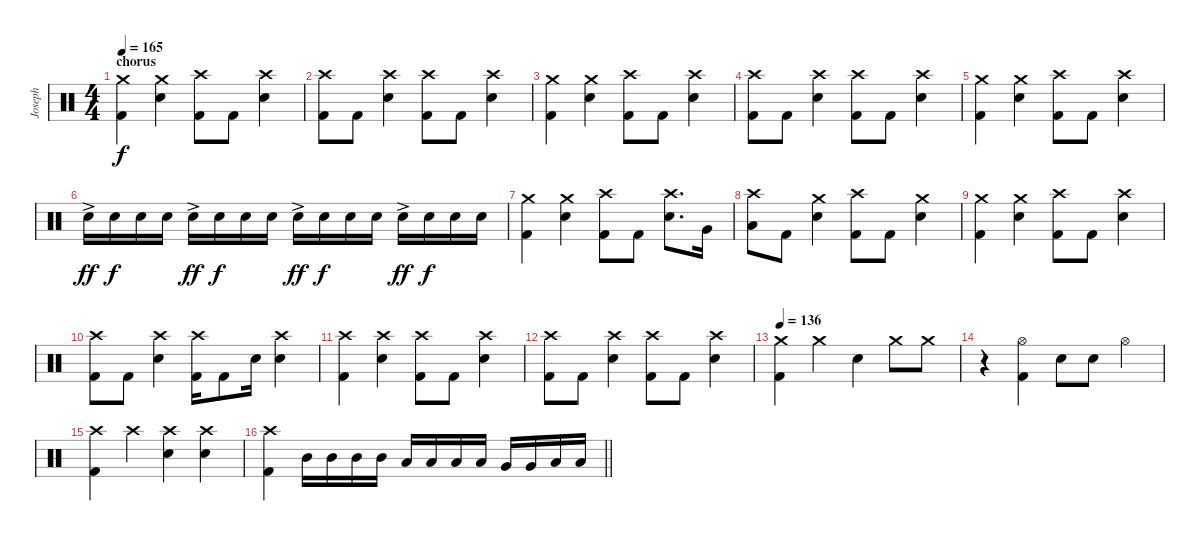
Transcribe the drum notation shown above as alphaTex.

\track ("Joseph" "Joseph") {instrument percussion}
\staff {score}
\articulation defaults
\ts (4 4)
\section ("" "chorus")
\tempo 165
\clef neutral
\ks c
("Crash medium (hit)" "Kick (hit) 2").4{dy f volume 13} ("Crash medium (hit)" "Electric Snare (hit)").4 ("Crash high (hit)" "Kick (hit) 2").8 "Kick (hit) 2".8 ("Crash high (hit)" "Electric Snare (hit)").4 |
("Crash high (hit)" "Kick (hit) 2").8 "Kick (hit) 2".8 ("Crash high (hit)" "Electric Snare (hit)").4 ("Crash high (hit)" "Kick (hit) 2").8 "Kick (hit) 2".8 ("Crash high (hit)" "Electric Snare (hit)").4 |
("Crash medium (hit)" "Kick (hit) 2").4 ("Crash medium (hit)" "Electric Snare (hit)").4 ("Crash high (hit)" "Kick (hit) 2").8 "Kick (hit) 2".8 ("Crash high (hit)" "Electric Snare (hit)").4 |
("Crash high (hit)" "Kick (hit) 2").8 "Kick (hit) 2".8 ("Crash high (hit)" "Electric Snare (hit)").4 ("Crash high (hit)" "Kick (hit) 2").8 "Kick (hit) 2".8 ("Crash high (hit)" "Electric Snare (hit)").4 |
("Crash medium (hit)" "Kick (hit) 2").4 ("Crash medium (hit)" "Electric Snare (hit)").4 ("Crash high (hit)" "Kick (hit) 2").8 "Kick (hit) 2".8 ("Crash high (hit)" "Electric Snare (hit)").4 |
"Electric Snare (hit)"{ac}.16{dy ff} "Electric Snare (hit)".16{dy f} "Electric Snare (hit)".16 "Electric Snare (hit)".16 "Electric Snare (hit)"{ac}.16{dy ff} "Electric Snare (hit)".16{dy f} "Electric Snare (hit)".16 "Electric Snare (hit)".16 "Electric Snare (hit)"{ac}.16{dy ff} "Electric Snare (hit)".16{dy f} "Electric Snare (hit)".16 "Electric Snare (hit)".16 "Electric Snare (hit)"{ac}.16{dy ff} "Electric Snare (hit)".16{dy f} "Electric Snare (hit)".16 "Electric Snare (hit)".16 |
("Crash medium (hit)" "Kick (hit) 2").4 ("Crash medium (hit)" "Electric Snare (hit)").4 ("Crash high (hit)" "Kick (hit) 2").8 "Kick (hit) 2".8 ("Crash high (hit)" "Electric Snare (hit)").8{d} "Very Low Tom (hit)".16 |
("Crash high (hit)" "Low Tom (hit)").8 "Kick (hit) 2".8 ("Crash medium (hit)" "Electric Snare (hit)").4 ("Crash high (hit)" "Kick (hit) 2").8 "Kick (hit) 2".8 ("Crash medium (hit)" "Electric Snare (hit)").4 |
("Crash medium (hit)" "Kick (hit) 2").4 ("Crash medium (hit)" "Electric Snare (hit)").4 ("Crash high (hit)" "Kick (hit) 2").8 "Kick (hit) 2".8 ("Crash high (hit)" "Electric Snare (hit)").4 |
("Crash high (hit)" "Kick (hit) 2").8 "Kick (hit) 2".8 ("Crash high (hit)" "Electric Snare (hit)").4 ("Crash high (hit)" "Kick (hit) 2").16 "Kick (hit) 2".8 "Electric Snare (hit)".16 ("Crash high (hit)" "Electric Snare (hit)").4 |
("Crash high (hit)" "Kick (hit) 2").4 ("Crash high (hit)" "Electric Snare (hit)").4 ("Crash high (hit)" "Kick (hit) 2").8 "Kick (hit) 2".8 ("Crash high (hit)" "Electric Snare (hit)").4 |
("Crash high (hit)" "Kick (hit) 2").8 "Kick (hit) 2".8 ("Crash high (hit)" "Electric Snare (hit)").4 ("Crash high (hit)" "Kick (hit) 2").8 "Kick (hit) 2".8 ("Crash high (hit)" "Electric Snare (hit)").4 |
\tempo 136
("Crash medium (hit)" "Kick (hit) 2").4 "Crash medium (hit)".4 "Electric Snare (hit)".4 "Crash medium (hit)".8 "Crash medium (hit)".8 |
r.4 ("Kick (hit) 2" "Hi-Hat (open)").4 "Electric Snare (hit)".8 "Electric Snare (hit)".8 "Hi-Hat (open)".4 |
("Crash high (hit)" "Kick (hit) 2").4 "Crash high (hit)".4 ("Crash high (hit)" "Electric Snare (hit)").4 ("Crash high (hit)" "Electric Snare (hit)").4 |
\barLineRight lightlight
("Crash high (hit)" "Kick (hit) 2").4 "Mid Tom (hit)".16 "Mid Tom (hit)".16 "Mid Tom (hit)".16 "Mid Tom (hit)".16 "Low Tom (hit)".16 "Low Tom (hit)".16 "Low Tom (hit)".16 "Low Tom (hit)".16 "Very Low Tom (hit)".16 "Very Low Tom (hit)".16 "Low Floor Tom (hit)".16 "Low Floor Tom (hit)".16
